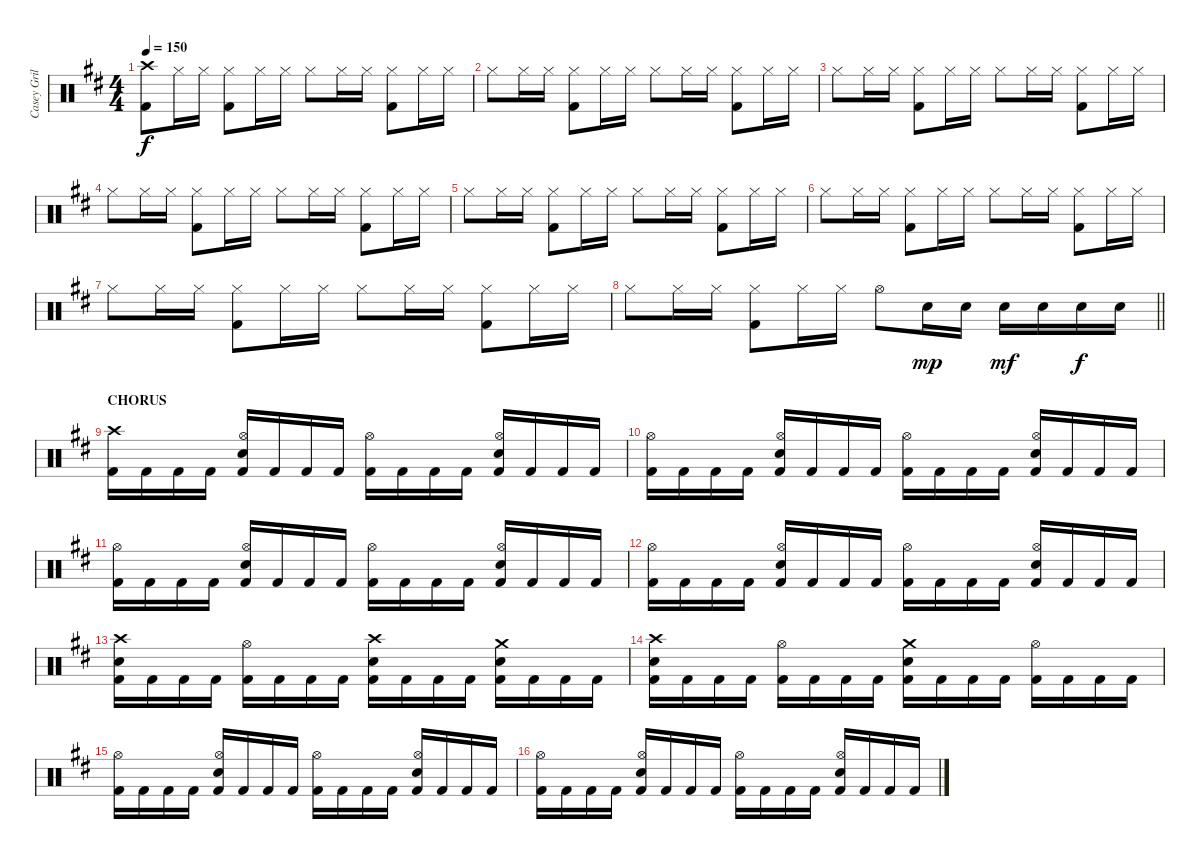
\track ("Casey Grillo" "Casey Gril") {instrument percussion}
\staff {score}
\articulation defaults
\ts (4 4)
\tempo 150
\clef neutral
\ks bminor
("Crash high (hit)" "Kick (hit) 2").8{dy f} "Hi-Hat (closed)".16 "Hi-Hat (closed)".16 ("Hi-Hat (closed)" "Kick (hit) 2").8 "Hi-Hat (closed)".16 "Hi-Hat (closed)".16 "Hi-Hat (closed)".8 "Hi-Hat (closed)".16 "Hi-Hat (closed)".16 ("Hi-Hat (closed)" "Kick (hit) 2").8 "Hi-Hat (closed)".16 "Hi-Hat (closed)".16 |
"Hi-Hat (closed)".8 "Hi-Hat (closed)".16 "Hi-Hat (closed)".16 ("Hi-Hat (closed)" "Kick (hit) 2").8 "Hi-Hat (closed)".16 "Hi-Hat (closed)".16 "Hi-Hat (closed)".8 "Hi-Hat (closed)".16 "Hi-Hat (closed)".16 ("Hi-Hat (closed)" "Kick (hit) 2").8 "Hi-Hat (closed)".16 "Hi-Hat (closed)".16 |
"Hi-Hat (closed)".8 "Hi-Hat (closed)".16 "Hi-Hat (closed)".16 ("Hi-Hat (closed)" "Kick (hit) 2").8 "Hi-Hat (closed)".16 "Hi-Hat (closed)".16 "Hi-Hat (closed)".8 "Hi-Hat (closed)".16 "Hi-Hat (closed)".16 ("Hi-Hat (closed)" "Kick (hit) 2").8 "Hi-Hat (closed)".16 "Hi-Hat (closed)".16 |
"Hi-Hat (closed)".8 "Hi-Hat (closed)".16 "Hi-Hat (closed)".16 ("Hi-Hat (closed)" "Kick (hit) 2").8 "Hi-Hat (closed)".16 "Hi-Hat (closed)".16 "Hi-Hat (closed)".8 "Hi-Hat (closed)".16 "Hi-Hat (closed)".16 ("Hi-Hat (closed)" "Kick (hit) 2").8 "Hi-Hat (closed)".16 "Hi-Hat (closed)".16 |
"Hi-Hat (closed)".8 "Hi-Hat (closed)".16 "Hi-Hat (closed)".16 ("Hi-Hat (closed)" "Kick (hit) 2").8 "Hi-Hat (closed)".16 "Hi-Hat (closed)".16 "Hi-Hat (closed)".8 "Hi-Hat (closed)".16 "Hi-Hat (closed)".16 ("Hi-Hat (closed)" "Kick (hit) 2").8 "Hi-Hat (closed)".16 "Hi-Hat (closed)".16 |
"Hi-Hat (closed)".8 "Hi-Hat (closed)".16 "Hi-Hat (closed)".16 ("Hi-Hat (closed)" "Kick (hit) 2").8 "Hi-Hat (closed)".16 "Hi-Hat (closed)".16 "Hi-Hat (closed)".8 "Hi-Hat (closed)".16 "Hi-Hat (closed)".16 ("Hi-Hat (closed)" "Kick (hit) 2").8 "Hi-Hat (closed)".16 "Hi-Hat (closed)".16 |
"Hi-Hat (closed)".8 "Hi-Hat (closed)".16 "Hi-Hat (closed)".16 ("Hi-Hat (closed)" "Kick (hit) 2").8 "Hi-Hat (closed)".16 "Hi-Hat (closed)".16 "Hi-Hat (closed)".8 "Hi-Hat (closed)".16 "Hi-Hat (closed)".16 ("Hi-Hat (closed)" "Kick (hit) 2").8 "Hi-Hat (closed)".16 "Hi-Hat (closed)".16 |
\barLineRight lightlight "Hi-Hat (closed)".8 "Hi-Hat (closed)".16 "Hi-Hat (closed)".16
("Hi-Hat (closed)" "Kick (hit) 2").8 "Hi-Hat (closed)".16 "Hi-Hat (closed)".16 "Hi-Hat (open)".8 "Electric Snare (hit)".16{dy mp} "Electric Snare (hit)".16 "Electric Snare (hit)".16{dy mf} "Electric Snare (hit)".16 "Electric Snare (hit)".16{dy f} "Electric Snare (hit)".16 |
\section ("" "CHORUS")
("Crash high (hit)" "Kick (hit) 2").16 "Kick (hit) 2".16 "Kick (hit) 2".16 "Kick (hit) 2".16 ("Hi-Hat (open)" "Electric Snare (hit)" "Kick (hit) 2").16 "Kick (hit) 2".16 "Kick (hit) 2".16 "Kick (hit) 2".16 ("Hi-Hat (open)" "Kick (hit) 2").16 "Kick (hit) 2".16 "Kick (hit) 2".16 "Kick (hit) 2".16 ("Hi-Hat (open)" "Electric Snare (hit)" "Kick (hit) 2").16 "Kick (hit) 2".16 "Kick (hit) 2".16 "Kick (hit) 2".16 |
("Hi-Hat (open)" "Kick (hit) 2").16 "Kick (hit) 2".16 "Kick (hit) 2".16 "Kick (hit) 2".16 ("Hi-Hat (open)" "Electric Snare (hit)" "Kick (hit) 2").16 "Kick (hit) 2".16 "Kick (hit) 2".16 "Kick (hit) 2".16 ("Hi-Hat (open)" "Kick (hit) 2").16 "Kick (hit) 2".16 "Kick (hit) 2".16 "Kick (hit) 2".16 ("Hi-Hat (open)" "Electric Snare (hit)" "Kick (hit) 2").16 "Kick (hit) 2".16 "Kick (hit) 2".16 "Kick (hit) 2".16 |
("Hi-Hat (open)" "Kick (hit) 2").16 "Kick (hit) 2".16 "Kick (hit) 2".16 "Kick (hit) 2".16 ("Hi-Hat (open)" "Electric Snare (hit)" "Kick (hit) 2").16 "Kick (hit) 2".16 "Kick (hit) 2".16 "Kick (hit) 2".16 ("Hi-Hat (open)" "Kick (hit) 2").16 "Kick (hit) 2".16 "Kick (hit) 2".16 "Kick (hit) 2".16 ("Hi-Hat (open)" "Electric Snare (hit)" "Kick (hit) 2").16 "Kick (hit) 2".16 "Kick (hit) 2".16 "Kick (hit) 2".16 |
("Hi-Hat (open)" "Kick (hit) 2").16 "Kick (hit) 2".16 "Kick (hit) 2".16 "Kick (hit) 2".16 ("Hi-Hat (open)" "Electric Snare (hit)" "Kick (hit) 2").16 "Kick (hit) 2".16 "Kick (hit) 2".16 "Kick (hit) 2".16 ("Hi-Hat (open)" "Kick (hit) 2").16 "Kick (hit) 2".16 "Kick (hit) 2".16 "Kick (hit) 2".16 ("Hi-Hat (open)" "Electric Snare (hit)" "Kick (hit) 2").16 "Kick (hit) 2".16 "Kick (hit) 2".16 "Kick (hit) 2".16 |
("Crash high (hit)" "Electric Snare (hit)" "Kick (hit) 2").16 "Kick (hit) 2".16 "Kick (hit) 2".16 "Kick (hit) 2".16 ("Hi-Hat (open)" "Kick (hit) 2").16 "Kick (hit) 2".16 "Kick (hit) 2".16 "Kick (hit) 2".16 ("Crash high (hit)" "Electric Snare (hit)" "Kick (hit) 2").16 "Kick (hit) 2".16 "Kick (hit) 2".16 "Kick (hit) 2".16 ("Crash medium (hit)" "Electric Snare (hit)" "Kick (hit) 2").16 "Kick (hit) 2".16 "Kick (hit) 2".16 "Kick (hit) 2".16 |
("Crash high (hit)" "Electric Snare (hit)" "Kick (hit) 2").16 "Kick (hit) 2".16 "Kick (hit) 2".16 "Kick (hit) 2".16 ("Hi-Hat (open)" "Kick (hit) 2").16 "Kick (hit) 2".16 "Kick (hit) 2".16 "Kick (hit) 2".16 ("Crash medium (hit)" "Electric Snare (hit)" "Kick (hit) 2").16 "Kick (hit) 2".16 "Kick (hit) 2".16 "Kick (hit) 2".16 ("Hi-Hat (open)" "Kick (hit) 2").16 "Kick (hit) 2".16 "Kick (hit) 2".16 "Kick (hit) 2".16 |
("Hi-Hat (open)" "Kick (hit) 2").16 "Kick (hit) 2".16 "Kick (hit) 2".16 "Kick (hit) 2".16 ("Hi-Hat (open)" "Electric Snare (hit)" "Kick (hit) 2").16 "Kick (hit) 2".16 "Kick (hit) 2".16 "Kick (hit) 2".16 ("Hi-Hat (open)" "Kick (hit) 2").16 "Kick (hit) 2".16 "Kick (hit) 2".16 "Kick (hit) 2".16 ("Hi-Hat (open)" "Electric Snare (hit)" "Kick (hit) 2").16 "Kick (hit) 2".16 "Kick (hit) 2".16 "Kick (hit) 2".16 |
("Hi-Hat (open)" "Kick (hit) 2").16 "Kick (hit) 2".16 "Kick (hit) 2".16 "Kick (hit) 2".16 ("Hi-Hat (open)" "Electric Snare (hit)" "Kick (hit) 2").16 "Kick (hit) 2".16 "Kick (hit) 2".16 "Kick (hit) 2".16 ("Hi-Hat (open)" "Kick (hit) 2").16 "Kick (hit) 2".16 "Kick (hit) 2".16 "Kick (hit) 2".16 ("Hi-Hat (open)" "Electric Snare (hit)" "Kick (hit) 2").16 "Kick (hit) 2".16 "Kick (hit) 2".16 "Kick (hit) 2".16
